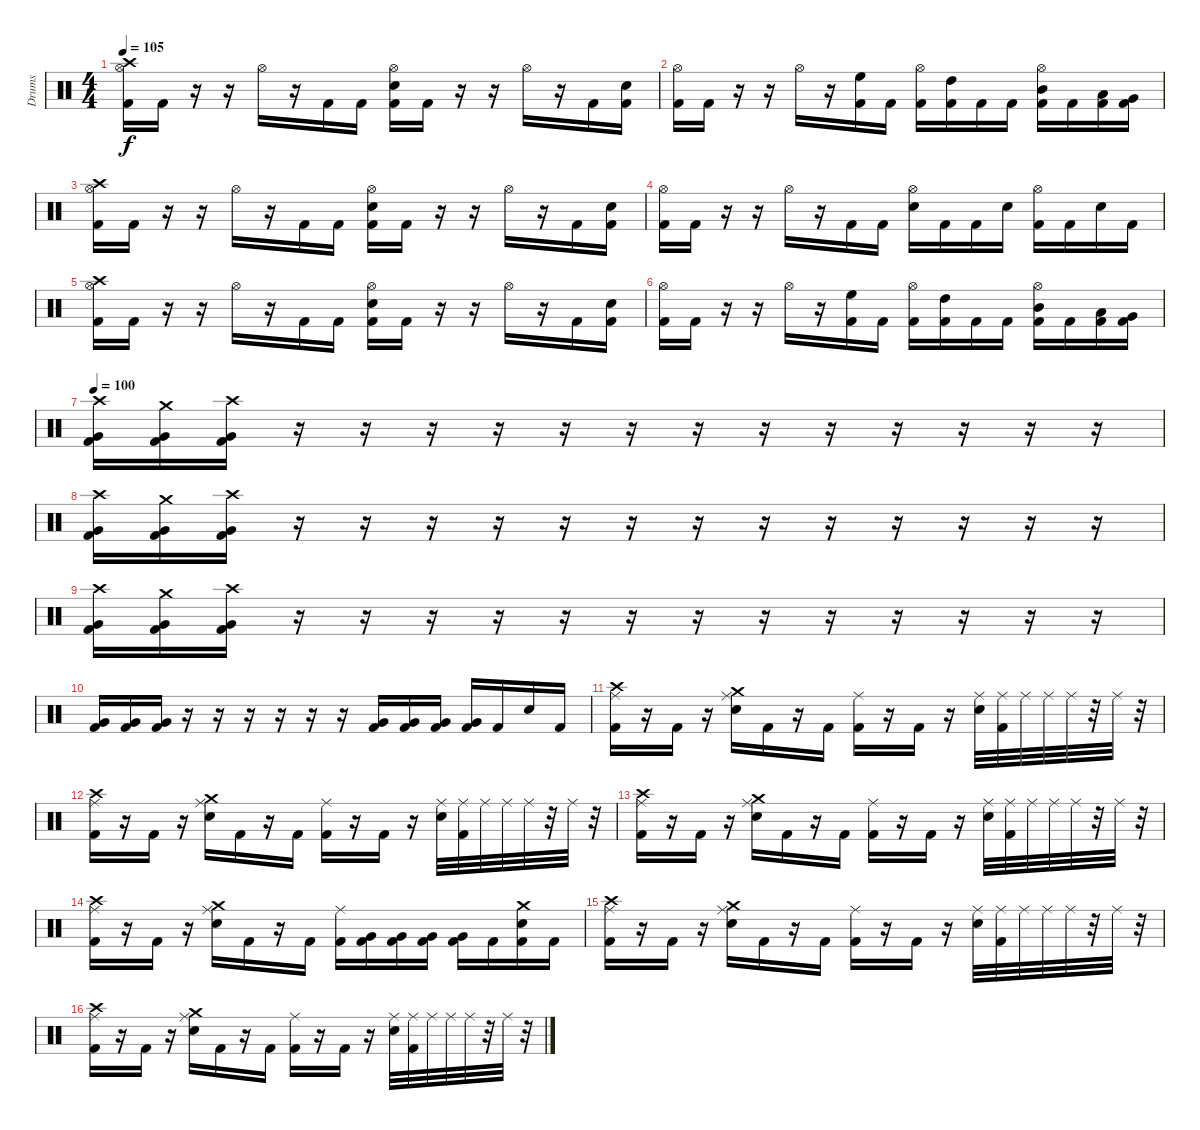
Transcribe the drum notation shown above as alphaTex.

\track ("Drums" "Drums") {instrument percussion}
\staff {score}
\articulation defaults
\ts (4 4)
\tempo 105
\clef neutral
\ks c
("Crash high (hit)" "Hi-Hat (open)" "Kick (hit) 2").16{dy f} "Kick (hit) 2".16 r.16 r.16 "Hi-Hat (open)".16 r.16 "Kick (hit) 2".16 "Kick (hit) 2".16 ("Hi-Hat (open)" "Snare (hit) 2" "Kick (hit) 2").16 "Kick (hit) 2".16 r.16 r.16 "Hi-Hat (open)".16 r.16 "Kick (hit) 2".16 ("Snare (hit) 2" "Kick (hit) 2").16 |
("Hi-Hat (open)" "Kick (hit) 2").16 "Kick (hit) 2".16 r.16 r.16 "Hi-Hat (open)".16 r.16 ("High Floor Tom (hit)" "Kick (hit) 2").16 "Kick (hit) 2".16 ("Hi-Hat (open)" "Kick (hit) 2").16 ("High Tom (hit)" "Kick (hit) 2").16 "Kick (hit) 2".16 "Kick (hit) 2".16 ("Hi-Hat (open)" "Mid Tom (hit)" "Kick (hit) 2").16 "Kick (hit) 2".16 ("Low Tom (hit)" "Kick (hit) 2").16 ("Very Low Tom (hit)" "Kick (hit) 2").16 |
("Crash high (hit)" "Hi-Hat (open)" "Kick (hit) 2").16 "Kick (hit) 2".16 r.16 r.16 "Hi-Hat (open)".16 r.16 "Kick (hit) 2".16 "Kick (hit) 2".16 ("Hi-Hat (open)" "Snare (hit) 2" "Kick (hit) 2").16 "Kick (hit) 2".16 r.16 r.16 "Hi-Hat (open)".16 r.16 "Kick (hit) 2".16 ("Snare (hit) 2" "Kick (hit) 2").16 |
("Hi-Hat (open)" "Kick (hit) 2").16 "Kick (hit) 2".16 r.16 r.16 "Hi-Hat (open)".16 r.16 "Kick (hit) 2".16 "Kick (hit) 2".16 ("Hi-Hat (open)" "Snare (hit) 2").16 "Kick (hit) 2".16 "Kick (hit) 2".16 "Snare (hit) 2".16 ("Hi-Hat (open)" "Kick (hit) 2").16 "Kick (hit) 2".16 "Snare (hit) 2".16 "Kick (hit) 2".16 |
("Crash high (hit)" "Hi-Hat (open)" "Kick (hit) 2").16 "Kick (hit) 2".16 r.16 r.16 "Hi-Hat (open)".16 r.16 "Kick (hit) 2".16 "Kick (hit) 2".16 ("Hi-Hat (open)" "Snare (hit) 2" "Kick (hit) 2").16 "Kick (hit) 2".16 r.16 r.16 "Hi-Hat (open)".16 r.16 "Kick (hit) 2".16 ("Snare (hit) 2" "Kick (hit) 2").16 |
("Hi-Hat (open)" "Kick (hit) 2").16 "Kick (hit) 2".16 r.16 r.16 "Hi-Hat (open)".16 r.16 ("High Floor Tom (hit)" "Kick (hit) 2").16 "Kick (hit) 2".16 ("Hi-Hat (open)" "Kick (hit) 2").16 ("High Tom (hit)" "Kick (hit) 2").16 "Kick (hit) 2".16 "Kick (hit) 2".16 ("Hi-Hat (open)" "Mid Tom (hit)" "Kick (hit) 2").16 "Kick (hit) 2".16 ("Low Tom (hit)" "Kick (hit) 2").16 ("Very Low Tom (hit)" "Kick (hit) 2").16 |
\tempo 100
("Crash high (hit)" "Very Low Tom (hit)" "Kick (hit) 2").16 ("Crash medium (hit)" "Very Low Tom (hit)" "Kick (hit) 2").16 ("Crash high (hit)" "Very Low Tom (hit)" "Kick (hit) 2").16 r.16 r.16 r.16 r.16 r.16 r.16 r.16 r.16 r.16 r.16 r.16 r.16 r.16 |
("Crash high (hit)" "Very Low Tom (hit)" "Kick (hit) 2").16 ("Crash medium (hit)" "Very Low Tom (hit)" "Kick (hit) 2").16 ("Crash high (hit)" "Very Low Tom (hit)" "Kick (hit) 2").16 r.16 r.16 r.16 r.16 r.16 r.16 r.16 r.16 r.16 r.16 r.16 r.16 r.16 |
("Crash high (hit)" "Very Low Tom (hit)" "Kick (hit) 2").16 ("Crash medium (hit)" "Very Low Tom (hit)" "Kick (hit) 2").16 ("Crash high (hit)" "Very Low Tom (hit)" "Kick (hit) 2").16 r.16 r.16 r.16 r.16 r.16 r.16 r.16 r.16 r.16 r.16 r.16 r.16 r.16 |
("Very Low Tom (hit)" "Kick (hit) 2").16 ("Very Low Tom (hit)" "Kick (hit) 2").16 ("Very Low Tom (hit)" "Kick (hit) 2").16 r.16 r.16 r.16 r.16 r.16 r.16 ("Very Low Tom (hit)" "Kick (hit) 2").16 ("Very Low Tom (hit)" "Kick (hit) 2").16 ("Very Low Tom (hit)" "Kick (hit) 2").16 ("Very Low Tom (hit)" "Kick (hit) 2").16 "Kick (hit) 2".16 "Snare (hit) 2".16 "Kick (hit) 2".16 |
("Crash high (hit)" "Ride (middle)" "Kick (hit) 2").16 r.16 "Kick (hit) 2".16 r.16 ("Crash medium (hit)" "Ride (middle)" "Snare (hit) 2").16 "Kick (hit) 2".16 r.16 "Kick (hit) 2".16 ("Ride (middle)" "Kick (hit) 2").16 r.16 "Kick (hit) 2".16 r.16 ("Ride (middle)" "Snare (hit) 2").32 ("Ride (middle)" "Kick (hit) 2").32 "Ride (middle)".32 "Ride (middle)".32 "Ride (middle)".32 r.32 "Ride (middle)".32 r.32 |
("Crash high (hit)" "Ride (middle)" "Kick (hit) 2").16 r.16 "Kick (hit) 2".16 r.16 ("Crash medium (hit)" "Ride (middle)" "Snare (hit) 2").16 "Kick (hit) 2".16 r.16 "Kick (hit) 2".16 ("Ride (middle)" "Kick (hit) 2").16 r.16 "Kick (hit) 2".16 r.16 ("Ride (middle)" "Snare (hit) 2").32 ("Ride (middle)" "Kick (hit) 2").32 "Ride (middle)".32 "Ride (middle)".32 "Ride (middle)".32 r.32 "Ride (middle)".32 r.32 |
("Crash high (hit)" "Ride (middle)" "Kick (hit) 2").16 r.16 "Kick (hit) 2".16 r.16 ("Crash medium (hit)" "Ride (middle)" "Snare (hit) 2").16 "Kick (hit) 2".16 r.16 "Kick (hit) 2".16 ("Ride (middle)" "Kick (hit) 2").16 r.16 "Kick (hit) 2".16 r.16 ("Ride (middle)" "Snare (hit) 2").32 ("Ride (middle)" "Kick (hit) 2").32 "Ride (middle)".32 "Ride (middle)".32 "Ride (middle)".32 r.32 "Ride (middle)".32 r.32 |
("Crash high (hit)" "Ride (middle)" "Kick (hit) 2").16 r.16 "Kick (hit) 2".16 r.16 ("Crash medium (hit)" "Ride (middle)" "Snare (hit) 2").16 "Kick (hit) 2".16 r.16 "Kick (hit) 2".16 ("Ride (middle)" "Kick (hit) 2").16 ("Very Low Tom (hit)" "Kick (hit) 2").16 ("Very Low Tom (hit)" "Kick (hit) 2").16 ("Very Low Tom (hit)" "Kick (hit) 2").16 ("Very Low Tom (hit)" "Kick (hit) 2").16 "Kick (hit) 2".16 ("Crash medium (hit)" "Snare (hit) 2" "Kick (hit) 2").16 "Kick (hit) 2".16 |
("Crash high (hit)" "Ride (middle)" "Kick (hit) 2").16 r.16 "Kick (hit) 2".16 r.16 ("Crash medium (hit)" "Ride (middle)" "Snare (hit) 2").16 "Kick (hit) 2".16 r.16 "Kick (hit) 2".16 ("Ride (middle)" "Kick (hit) 2").16 r.16 "Kick (hit) 2".16 r.16 ("Ride (middle)" "Snare (hit) 2").32 ("Ride (middle)" "Kick (hit) 2").32 "Ride (middle)".32 "Ride (middle)".32 "Ride (middle)".32 r.32 "Ride (middle)".32 r.32 |
("Crash high (hit)" "Ride (middle)" "Kick (hit) 2").16 r.16 "Kick (hit) 2".16 r.16 ("Crash medium (hit)" "Ride (middle)" "Snare (hit) 2").16 "Kick (hit) 2".16 r.16 "Kick (hit) 2".16 ("Ride (middle)" "Kick (hit) 2").16 r.16 "Kick (hit) 2".16 r.16 ("Ride (middle)" "Snare (hit) 2").32 ("Ride (middle)" "Kick (hit) 2").32 "Ride (middle)".32 "Ride (middle)".32 "Ride (middle)".32 r.32 "Ride (middle)".32 r.32
